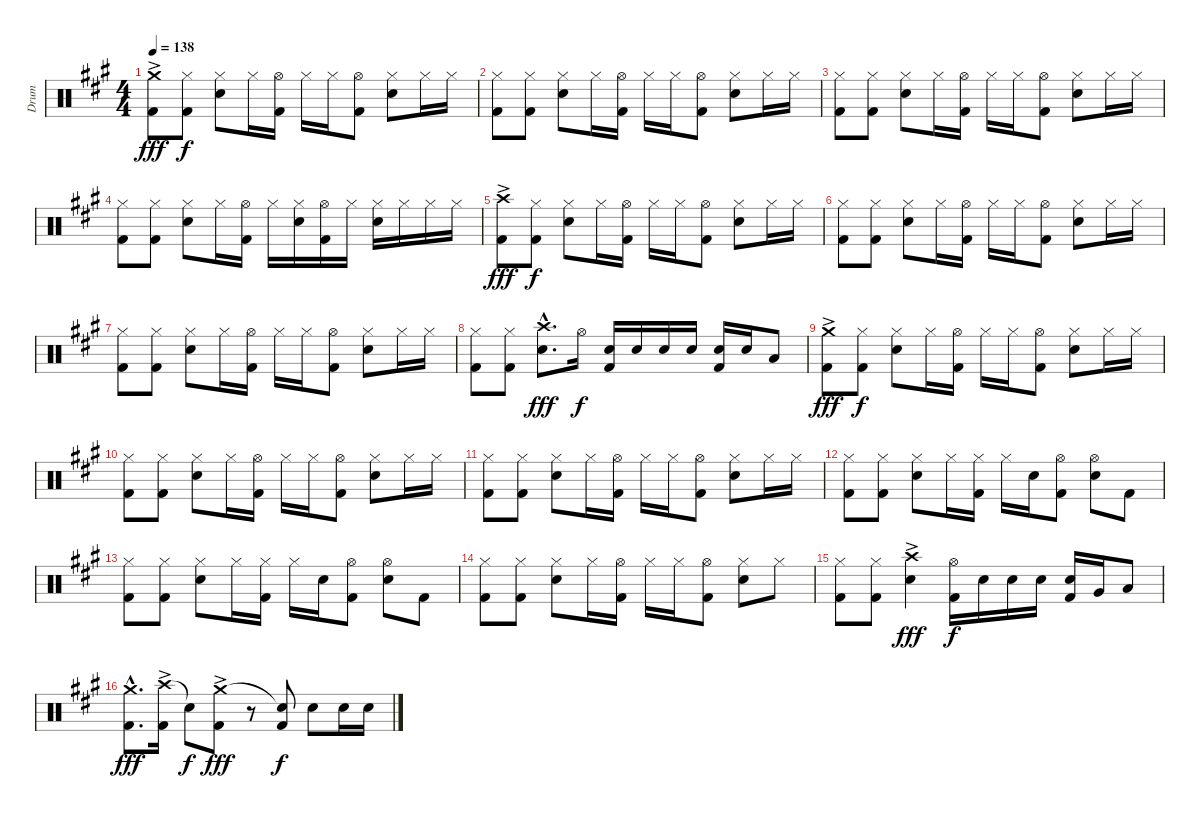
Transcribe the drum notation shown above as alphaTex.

\track ("Drum" "Drum") {instrument percussion}
\staff {score}
\articulation defaults
\ts (4 4)
\tempo 138
\clef neutral
\ks a
("Crash medium (hit)"{ac} "Kick (hit) 2").8{dy fff} ("Hi-Hat (closed)" "Kick (hit) 2").8{dy f} ("Hi-Hat (closed)" "Snare (hit) 2").8 "Hi-Hat (closed)".16 ("Hi-Hat (open)" "Kick (hit) 2").16 "Hi-Hat (closed)".16 "Hi-Hat (closed)".16 ("Hi-Hat (open)" "Kick (hit) 2").8 ("Hi-Hat (closed)" "Snare (hit) 2").8 "Hi-Hat (closed)".16 "Hi-Hat (closed)".16 |
("Hi-Hat (closed)" "Kick (hit) 2").8 ("Hi-Hat (closed)" "Kick (hit) 2").8 ("Hi-Hat (closed)" "Snare (hit) 2").8 "Hi-Hat (closed)".16 ("Hi-Hat (open)" "Kick (hit) 2").16 "Hi-Hat (closed)".16 "Hi-Hat (closed)".16 ("Hi-Hat (open)" "Kick (hit) 2").8 ("Hi-Hat (closed)" "Snare (hit) 2").8 "Hi-Hat (closed)".16 "Hi-Hat (closed)".16 |
("Hi-Hat (closed)" "Kick (hit) 2").8 ("Hi-Hat (closed)" "Kick (hit) 2").8 ("Hi-Hat (closed)" "Snare (hit) 2").8 "Hi-Hat (closed)".16 ("Hi-Hat (open)" "Kick (hit) 2").16 "Hi-Hat (closed)".16 "Hi-Hat (closed)".16 ("Hi-Hat (open)" "Kick (hit) 2").8 ("Hi-Hat (closed)" "Snare (hit) 2").8 "Hi-Hat (closed)".16 "Hi-Hat (closed)".16 |
("Hi-Hat (closed)" "Kick (hit) 2").8 ("Hi-Hat (closed)" "Kick (hit) 2").8 ("Hi-Hat (closed)" "Snare (hit) 2").8 "Hi-Hat (closed)".16 ("Hi-Hat (open)" "Kick (hit) 2").16 "Hi-Hat (closed)".16 ("Hi-Hat (closed)" "Snare (hit) 2").16 ("Hi-Hat (open)" "Kick (hit) 2").16 "Hi-Hat (closed)".16 ("Hi-Hat (closed)" "Snare (hit) 2").16 "Hi-Hat (closed)".16 "Hi-Hat (closed)".16 "Hi-Hat (closed)".16 |
("Crash high (hit)"{ac} "Kick (hit) 2").8{dy fff} ("Hi-Hat (closed)" "Kick (hit) 2").8{dy f} ("Hi-Hat (closed)" "Snare (hit) 2").8 "Hi-Hat (closed)".16 ("Hi-Hat (open)" "Kick (hit) 2").16 "Hi-Hat (closed)".16 "Hi-Hat (closed)".16 ("Hi-Hat (open)" "Kick (hit) 2").8 ("Hi-Hat (closed)" "Snare (hit) 2").8 "Hi-Hat (closed)".16 "Hi-Hat (closed)".16 |
("Hi-Hat (closed)" "Kick (hit) 2").8 ("Hi-Hat (closed)" "Kick (hit) 2").8 ("Hi-Hat (closed)" "Snare (hit) 2").8 "Hi-Hat (closed)".16 ("Hi-Hat (open)" "Kick (hit) 2").16 "Hi-Hat (closed)".16 "Hi-Hat (closed)".16 ("Hi-Hat (open)" "Kick (hit) 2").8 ("Hi-Hat (closed)" "Snare (hit) 2").8 "Hi-Hat (closed)".16 "Hi-Hat (closed)".16 |
("Hi-Hat (closed)" "Kick (hit) 2").8 ("Hi-Hat (closed)" "Kick (hit) 2").8 ("Hi-Hat (closed)" "Snare (hit) 2").8 "Hi-Hat (closed)".16 ("Hi-Hat (open)" "Kick (hit) 2").16 "Hi-Hat (closed)".16 "Hi-Hat (closed)".16 ("Hi-Hat (open)" "Kick (hit) 2").8 ("Hi-Hat (closed)" "Snare (hit) 2").8 "Hi-Hat (closed)".16 "Hi-Hat (closed)".16 |
("Hi-Hat (closed)" "Kick (hit) 2").8 ("Hi-Hat (closed)" "Kick (hit) 2").8 ("Crash high (hit)"{hac} "Snare (hit) 2"{hac}).8{d dy fff} "Hi-Hat (open)".16{dy f} ("Snare (hit) 2" "Kick (hit) 2").16 "Snare (hit) 2".16 "Snare (hit) 2".16 "Snare (hit) 2".16 ("Snare (hit) 2" "Kick (hit) 2").16 "Snare (hit) 2".16 "Low Floor Tom (hit)".8 |
("Crash medium (hit)"{ac} "Kick (hit) 2").8{dy fff} ("Hi-Hat (closed)" "Kick (hit) 2").8{dy f} ("Hi-Hat (closed)" "Snare (hit) 2").8 "Hi-Hat (closed)".16 ("Hi-Hat (open)" "Kick (hit) 2").16 "Hi-Hat (closed)".16 "Hi-Hat (closed)".16 ("Hi-Hat (open)" "Kick (hit) 2").8 ("Hi-Hat (closed)" "Snare (hit) 2").8 "Hi-Hat (closed)".16 "Hi-Hat (closed)".16 |
("Hi-Hat (closed)" "Kick (hit) 2").8 ("Hi-Hat (closed)" "Kick (hit) 2").8 ("Hi-Hat (closed)" "Snare (hit) 2").8 "Hi-Hat (closed)".16 ("Hi-Hat (open)" "Kick (hit) 2").16 "Hi-Hat (closed)".16 "Hi-Hat (closed)".16 ("Hi-Hat (open)" "Kick (hit) 2").8 ("Hi-Hat (closed)" "Snare (hit) 2").8 "Hi-Hat (closed)".16 "Hi-Hat (closed)".16 |
("Hi-Hat (closed)" "Kick (hit) 2").8 ("Hi-Hat (closed)" "Kick (hit) 2").8 ("Hi-Hat (closed)" "Snare (hit) 2").8 "Hi-Hat (closed)".16 ("Hi-Hat (open)" "Kick (hit) 2").16 "Hi-Hat (closed)".16 "Hi-Hat (closed)".16 ("Hi-Hat (open)" "Kick (hit) 2").8 ("Hi-Hat (closed)" "Snare (hit) 2").8 "Hi-Hat (closed)".16 "Hi-Hat (closed)".16 |
("Hi-Hat (closed)" "Kick (hit) 2").8 ("Hi-Hat (closed)" "Kick (hit) 2").8 ("Hi-Hat (closed)" "Snare (hit) 2").8 "Hi-Hat (closed)".16 ("Hi-Hat (closed)" "Kick (hit) 2").16 "Hi-Hat (closed)".16 "Snare (hit) 2".16 ("Hi-Hat (open)" "Kick (hit) 2").8 ("Hi-Hat (open)" "Snare (hit) 2").8 "Kick (hit) 2".8 |
("Hi-Hat (closed)" "Kick (hit) 2").8 ("Hi-Hat (closed)" "Kick (hit) 2").8 ("Hi-Hat (closed)" "Snare (hit) 2").8 "Hi-Hat (closed)".16 ("Hi-Hat (closed)" "Kick (hit) 2").16 "Hi-Hat (closed)".16 "Snare (hit) 2".16 ("Hi-Hat (open)" "Kick (hit) 2").8 ("Hi-Hat (open)" "Snare (hit) 2").8 "Kick (hit) 2".8 |
("Hi-Hat (closed)" "Kick (hit) 2").8 ("Hi-Hat (closed)" "Kick (hit) 2").8 ("Hi-Hat (closed)" "Snare (hit) 2").8 "Hi-Hat (closed)".16 ("Hi-Hat (open)" "Kick (hit) 2").16 "Hi-Hat (closed)".16 "Hi-Hat (closed)".16 ("Hi-Hat (open)" "Kick (hit) 2").8 ("Hi-Hat (closed)" "Snare (hit) 2").8 "Hi-Hat (closed)".8 |
("Hi-Hat (closed)" "Kick (hit) 2").8 ("Hi-Hat (closed)" "Kick (hit) 2").8 ("Crash high (hit)"{ac} "Snare (hit) 2").4{dy fff} ("Hi-Hat (open)" "Kick (hit) 2").16{dy f} "Snare (hit) 2".16 "Snare (hit) 2".16 "Snare (hit) 2".16 ("Snare (hit) 2" "Kick (hit) 2").16 "Very Low Tom (hit)".16 "Low Floor Tom (hit)".8 |
("Crash medium (hit)"{hac} "Kick (hit) 2"{hac}).8{d dy fff} ("Crash high (hit)"{ac} "Kick (hit) 2").16 "Snare (hit)"{t}.8{dy f} ("Crash medium (hit)"{ac} "Kick (hit) 2").8{dy fff} r.8 ("Snare (hit)"{t} "Kick (hit) 2").8{dy f} "Snare (hit) 2".8 "Snare (hit) 2".16 "Snare (hit) 2".16
